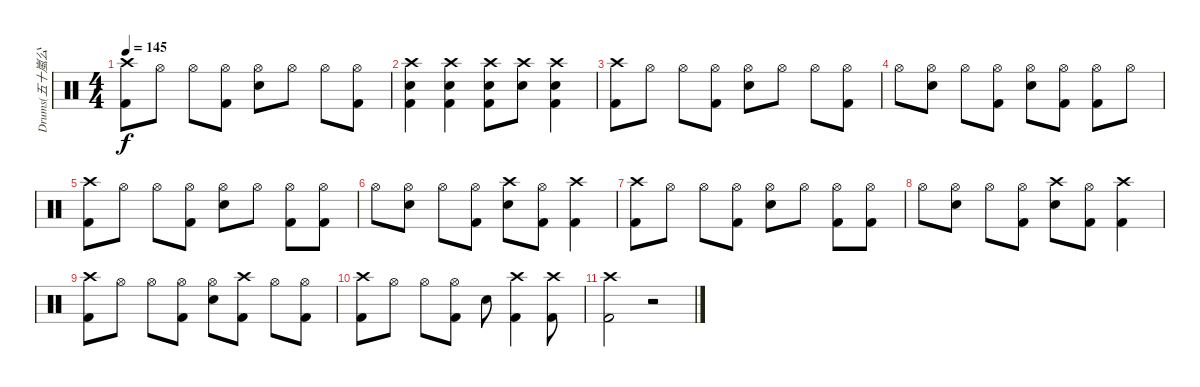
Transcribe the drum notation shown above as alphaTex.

\track ("Drums(五十嵐公太)" "Drums(五十嵐公") {instrument percussion}
\staff {score}
\articulation defaults
\ts (4 4)
\tempo 145
\clef neutral
\ks c
("Crash high (hit)" "Kick (hit) 2").8{dy f} "Hi-Hat (open)".8 "Hi-Hat (open)".8 ("Hi-Hat (open)" "Kick (hit) 2").8 ("Hi-Hat (open)" "Snare (hit) 2").8 "Hi-Hat (open)".8 "Hi-Hat (open)".8 ("Hi-Hat (open)" "Kick (hit) 2").8 |
("Crash high (hit)" "Snare (hit) 2" "Kick (hit) 2").4 ("Crash high (hit)" "Snare (hit) 2" "Kick (hit) 2").4 ("Crash high (hit)" "Snare (hit) 2" "Kick (hit) 2").8 ("Crash high (hit)" "Snare (hit) 2").8 ("Crash high (hit)" "Snare (hit) 2" "Kick (hit) 2").4 |
("Crash high (hit)" "Kick (hit) 2").8 "Hi-Hat (open)".8 "Hi-Hat (open)".8 ("Hi-Hat (open)" "Kick (hit) 2").8 ("Hi-Hat (open)" "Snare (hit) 2").8 "Hi-Hat (open)".8 "Hi-Hat (open)".8 ("Hi-Hat (open)" "Kick (hit) 2").8 |
"Hi-Hat (open)".8 ("Hi-Hat (open)" "Snare (hit) 2").8 "Hi-Hat (open)".8 ("Hi-Hat (open)" "Kick (hit) 2").8 ("Hi-Hat (open)" "Snare (hit) 2").8 ("Hi-Hat (open)" "Kick (hit) 2").8 ("Hi-Hat (open)" "Kick (hit) 2").8 "Hi-Hat (open)".8 |
("Crash high (hit)" "Kick (hit) 2").8 "Hi-Hat (open)".8 "Hi-Hat (open)".8 ("Hi-Hat (open)" "Kick (hit) 2").8 ("Hi-Hat (open)" "Snare (hit) 2").8 "Hi-Hat (open)".8 ("Hi-Hat (open)" "Kick (hit) 2").8 ("Hi-Hat (open)" "Kick (hit) 2").8 |
"Hi-Hat (open)".8 ("Hi-Hat (open)" "Snare (hit) 2").8 "Hi-Hat (open)".8 ("Hi-Hat (open)" "Kick (hit) 2").8 ("Crash high (hit)" "Snare (hit) 2").8 ("Hi-Hat (open)" "Kick (hit) 2").8 ("Crash high (hit)" "Kick (hit) 2").4 |
("Crash high (hit)" "Kick (hit) 2").8 "Hi-Hat (open)".8 "Hi-Hat (open)".8 ("Hi-Hat (open)" "Kick (hit) 2").8 ("Hi-Hat (open)" "Snare (hit) 2").8 "Hi-Hat (open)".8 ("Hi-Hat (open)" "Kick (hit) 2").8 ("Hi-Hat (open)" "Kick (hit) 2").8 |
"Hi-Hat (open)".8 ("Hi-Hat (open)" "Snare (hit) 2").8 "Hi-Hat (open)".8 ("Hi-Hat (open)" "Kick (hit) 2").8 ("Crash high (hit)" "Snare (hit) 2").8 ("Hi-Hat (open)" "Kick (hit) 2").8 ("Crash high (hit)" "Kick (hit) 2").4 |
("Crash high (hit)" "Kick (hit) 2").8 "Hi-Hat (open)".8 "Hi-Hat (open)".8 ("Hi-Hat (open)" "Kick (hit) 2").8 ("Hi-Hat (open)" "Snare (hit) 2").8 ("Crash high (hit)" "Kick (hit) 2").8 "Hi-Hat (open)".8 ("Hi-Hat (open)" "Kick (hit) 2").8 |
("Crash high (hit)" "Kick (hit) 2").8 "Hi-Hat (open)".8 "Hi-Hat (open)".8 ("Hi-Hat (open)" "Kick (hit) 2").8 "Snare (hit) 2".8 ("Crash high (hit)" "Kick (hit) 2").4 ("Crash high (hit)" "Kick (hit) 2").8 |
("Crash high (hit)" "Kick (hit) 2").2 r.2
